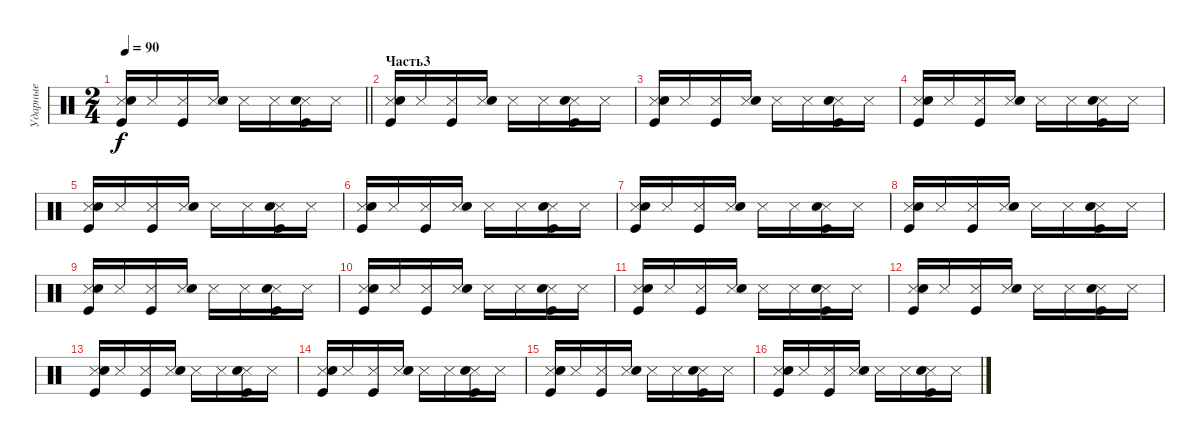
\track ("Ударные" "Ударные") {instrument percussion}
\staff {score}
\articulation defaults
\ts (2 4)
\tempo 90
\clef neutral
\barLineRight lightlight
\ks c
("Snare (side stick) 3" "Kick (hit)" "Electric Snare (hit)").16{dy f} "Snare (side stick) 3".16 ("Snare (side stick) 3" "Kick (hit)").16 ("Snare (side stick) 3" "Snare (hit) 2").16 "Snare (side stick) 3".16 "Snare (side stick) 3".16 ("Snare (side stick) 3" "Kick (hit)" "Electric Snare (hit)").16 "Snare (side stick) 3".16 |
\section ("" "Часть3")
("Snare (side stick) 3" "Kick (hit)" "Electric Snare (hit)").16 "Snare (side stick) 3".16 ("Snare (side stick) 3" "Kick (hit)").16 ("Snare (side stick) 3" "Snare (hit) 2").16 "Snare (side stick) 3".16 "Snare (side stick) 3".16 ("Snare (side stick) 3" "Kick (hit)" "Electric Snare (hit)").16 "Snare (side stick) 3".16 |
("Snare (side stick) 3" "Kick (hit)" "Electric Snare (hit)").16 "Snare (side stick) 3".16 ("Snare (side stick) 3" "Kick (hit)").16 ("Snare (side stick) 3" "Snare (hit) 2").16 "Snare (side stick) 3".16 "Snare (side stick) 3".16 ("Snare (side stick) 3" "Kick (hit)" "Electric Snare (hit)").16 "Snare (side stick) 3".16 |
("Snare (side stick) 3" "Kick (hit)" "Electric Snare (hit)").16 "Snare (side stick) 3".16 ("Snare (side stick) 3" "Kick (hit)").16 ("Snare (side stick) 3" "Snare (hit) 2").16 "Snare (side stick) 3".16 "Snare (side stick) 3".16 ("Snare (side stick) 3" "Kick (hit)" "Electric Snare (hit)").16 "Snare (side stick) 3".16 |
("Snare (side stick) 3" "Kick (hit)" "Electric Snare (hit)").16 "Snare (side stick) 3".16 ("Snare (side stick) 3" "Kick (hit)").16 ("Snare (side stick) 3" "Snare (hit) 2").16 "Snare (side stick) 3".16 "Snare (side stick) 3".16 ("Snare (side stick) 3" "Kick (hit)" "Electric Snare (hit)").16 "Snare (side stick) 3".16 |
("Snare (side stick) 3" "Kick (hit)" "Electric Snare (hit)").16 "Snare (side stick) 3".16 ("Snare (side stick) 3" "Kick (hit)").16 ("Snare (side stick) 3" "Snare (hit) 2").16 "Snare (side stick) 3".16 "Snare (side stick) 3".16 ("Snare (side stick) 3" "Kick (hit)" "Electric Snare (hit)").16 "Snare (side stick) 3".16 |
("Snare (side stick) 3" "Kick (hit)" "Electric Snare (hit)").16 "Snare (side stick) 3".16 ("Snare (side stick) 3" "Kick (hit)").16 ("Snare (side stick) 3" "Snare (hit) 2").16 "Snare (side stick) 3".16 "Snare (side stick) 3".16 ("Snare (side stick) 3" "Kick (hit)" "Electric Snare (hit)").16 "Snare (side stick) 3".16 |
("Snare (side stick) 3" "Kick (hit)" "Electric Snare (hit)").16 "Snare (side stick) 3".16 ("Snare (side stick) 3" "Kick (hit)").16 ("Snare (side stick) 3" "Snare (hit) 2").16 "Snare (side stick) 3".16 "Snare (side stick) 3".16 ("Snare (side stick) 3" "Kick (hit)" "Electric Snare (hit)").16 "Snare (side stick) 3".16 |
("Snare (side stick) 3" "Kick (hit)" "Electric Snare (hit)").16 "Snare (side stick) 3".16 ("Snare (side stick) 3" "Kick (hit)").16 ("Snare (side stick) 3" "Snare (hit) 2").16 "Snare (side stick) 3".16 "Snare (side stick) 3".16 ("Snare (side stick) 3" "Kick (hit)" "Electric Snare (hit)").16 "Snare (side stick) 3".16 |
("Snare (side stick) 3" "Kick (hit)" "Electric Snare (hit)").16 "Snare (side stick) 3".16 ("Snare (side stick) 3" "Kick (hit)").16 ("Snare (side stick) 3" "Snare (hit) 2").16 "Snare (side stick) 3".16 "Snare (side stick) 3".16 ("Snare (side stick) 3" "Kick (hit)" "Electric Snare (hit)").16 "Snare (side stick) 3".16 |
("Snare (side stick) 3" "Kick (hit)" "Electric Snare (hit)").16 "Snare (side stick) 3".16 ("Snare (side stick) 3" "Kick (hit)").16 ("Snare (side stick) 3" "Snare (hit) 2").16 "Snare (side stick) 3".16 "Snare (side stick) 3".16 ("Snare (side stick) 3" "Kick (hit)" "Electric Snare (hit)").16 "Snare (side stick) 3".16 |
("Snare (side stick) 3" "Kick (hit)" "Electric Snare (hit)").16 "Snare (side stick) 3".16 ("Snare (side stick) 3" "Kick (hit)").16 ("Snare (side stick) 3" "Snare (hit) 2").16 "Snare (side stick) 3".16 "Snare (side stick) 3".16 ("Snare (side stick) 3" "Kick (hit)" "Electric Snare (hit)").16 "Snare (side stick) 3".16 |
("Snare (side stick) 3" "Kick (hit)" "Electric Snare (hit)").16 "Snare (side stick) 3".16 ("Snare (side stick) 3" "Kick (hit)").16 ("Snare (side stick) 3" "Snare (hit) 2").16 "Snare (side stick) 3".16 "Snare (side stick) 3".16 ("Snare (side stick) 3" "Kick (hit)" "Electric Snare (hit)").16 "Snare (side stick) 3".16 |
("Snare (side stick) 3" "Kick (hit)" "Electric Snare (hit)").16 "Snare (side stick) 3".16 ("Snare (side stick) 3" "Kick (hit)").16 ("Snare (side stick) 3" "Snare (hit) 2").16 "Snare (side stick) 3".16 "Snare (side stick) 3".16 ("Snare (side stick) 3" "Kick (hit)" "Electric Snare (hit)").16 "Snare (side stick) 3".16 |
("Snare (side stick) 3" "Kick (hit)" "Electric Snare (hit)").16 "Snare (side stick) 3".16 ("Snare (side stick) 3" "Kick (hit)").16 ("Snare (side stick) 3" "Snare (hit) 2").16 "Snare (side stick) 3".16 "Snare (side stick) 3".16 ("Snare (side stick) 3" "Kick (hit)" "Electric Snare (hit)").16 "Snare (side stick) 3".16 |
("Snare (side stick) 3" "Kick (hit)" "Electric Snare (hit)").16 "Snare (side stick) 3".16 ("Snare (side stick) 3" "Kick (hit)").16 ("Snare (side stick) 3" "Snare (hit) 2").16 "Snare (side stick) 3".16 "Snare (side stick) 3".16 ("Snare (side stick) 3" "Kick (hit)" "Electric Snare (hit)").16 "Snare (side stick) 3".16
